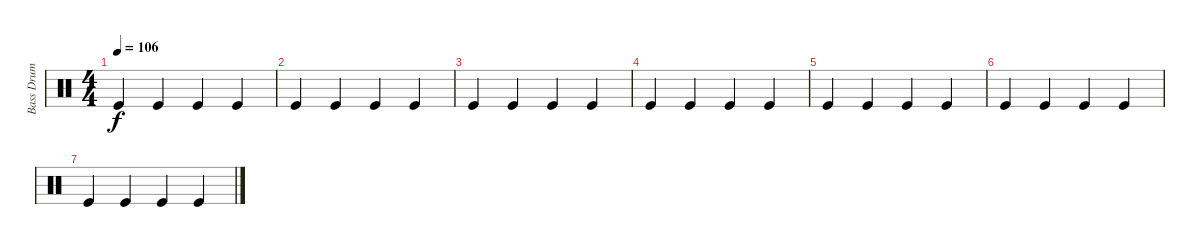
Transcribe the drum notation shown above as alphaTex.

\track ("Bass Drum" "Bass Drum") {instrument percussion}
\staff {score}
\articulation defaults
\ts (4 4)
\tempo 106
\clef neutral
\ks c "Kick (hit)".4{dy f} "Kick (hit)".4 "Kick (hit)".4 "Kick (hit)".4
|
"Kick (hit)".4 "Kick (hit)".4 "Kick (hit)".4 "Kick (hit)".4 |
"Kick (hit)".4 "Kick (hit)".4 "Kick (hit)".4 "Kick (hit)".4 |
"Kick (hit)".4 "Kick (hit)".4 "Kick (hit)".4 "Kick (hit)".4 |
"Kick (hit)".4 "Kick (hit)".4 "Kick (hit)".4 "Kick (hit)".4 |
"Kick (hit)".4 "Kick (hit)".4 "Kick (hit)".4 "Kick (hit)".4 |
"Kick (hit)".4 "Kick (hit)".4 "Kick (hit)".4 "Kick (hit)".4
